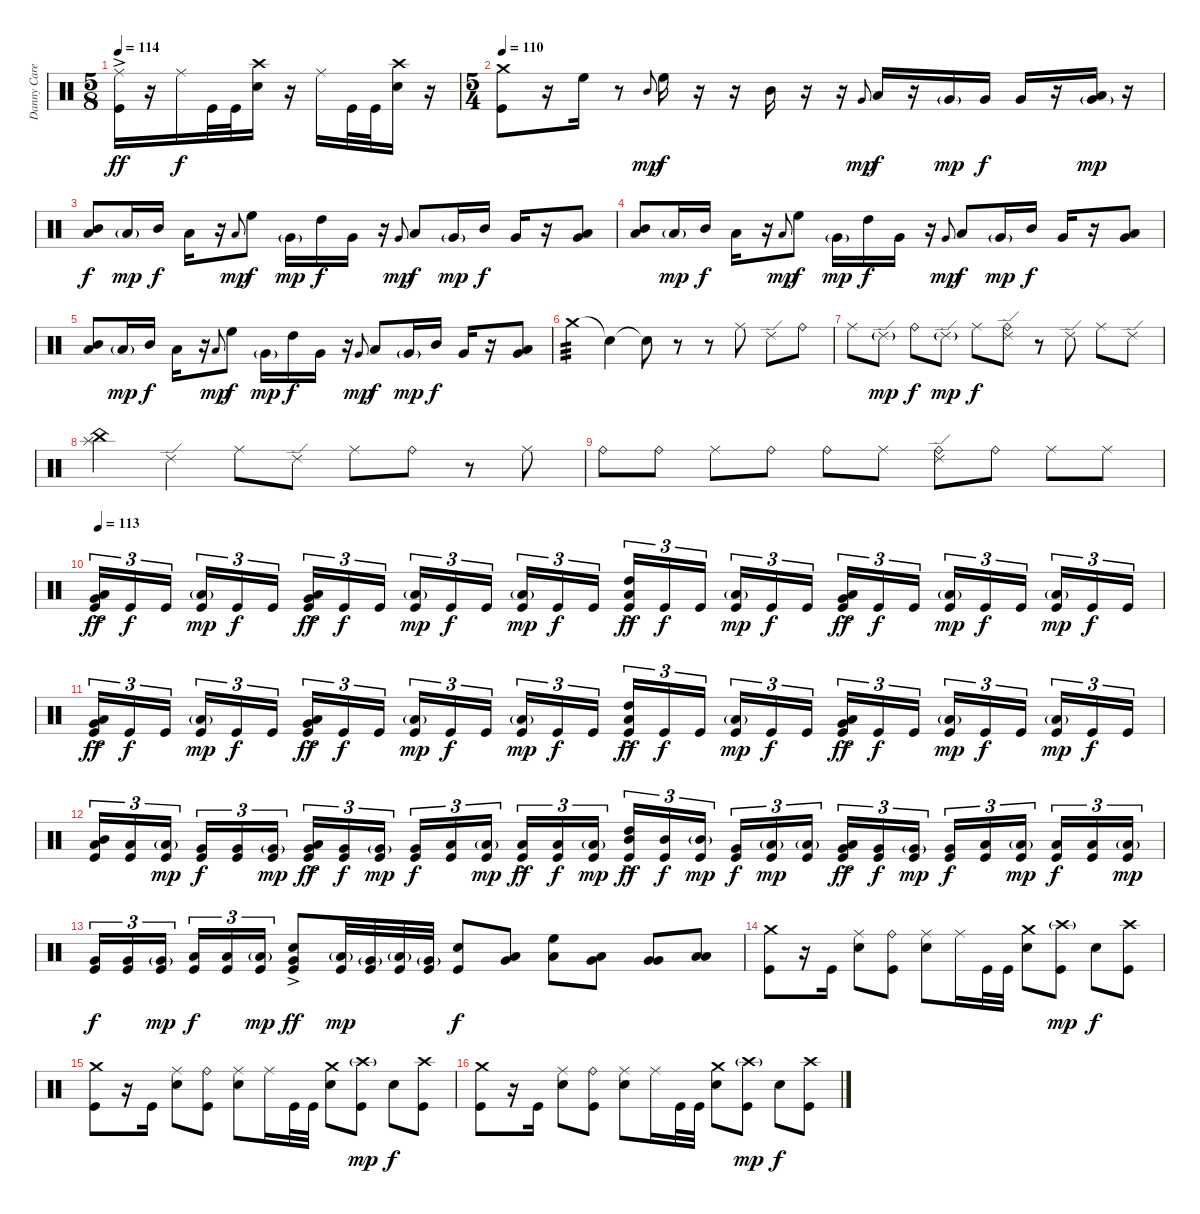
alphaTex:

\track ("Danny Carey (drum)" "Danny Care") {instrument percussion}
\staff {score}
\articulation defaults
\ts (5 8)
\tempo 114
\clef neutral
\ks c
("Ride (middle)"{ac} "Kick (hit)").16{dy ff} r.16 "Ride (middle)".16{dy f} "Kick (hit)".32 "Kick (hit)".32 ("Crash high (hit)" "Snare (hit) 2").16 r.16 "Ride (middle)".16 "Kick (hit)".32 "Kick (hit)".32 ("Crash high (hit)" "Snare (hit) 2").16 r.16 |
\ts (5 4)
\tempo 110
("Crash medium (hit)" "Kick (hit)").8 r.16 "High Floor Tom (hit)".16 r.8 "Mid Tom (hit)".8{gr onbeat dy mp} "High Floor Tom (hit)".16{dy f} r.16 r.16 "Mid Tom (hit)".16 r.16 r.16 "Very Low Tom (hit)".8{gr onbeat dy mp} "Low Tom (hit)".16{dy f} r.16 "Very Low Tom (hit)"{g}.16{dy mp} "Very Low Tom (hit)".16{dy f} "Very Low Tom (hit)".16 r.16 ("Very Low Tom (hit)"{g} "Low Floor Tom (hit)").16{dy mp} r.16 |
("Mid Tom (hit)" "Low Floor Tom (hit)").8{dy f} "Low Floor Tom (hit)"{g}.16{dy mp} "Mid Tom (hit)".16{dy f} "Low Floor Tom (hit)".16 r.16 "Low Tom (hit)".8{gr onbeat dy mp} "High Floor Tom (hit)".8{dy f} "Very Low Tom (hit)"{g}.16{dy mp} "High Tom (hit)".16{dy f} "Very Low Tom (hit)".16 r.16 "Very Low Tom (hit)".8{gr onbeat dy mp} "Low Tom (hit)".8{dy f} "Very Low Tom (hit)"{g}.16{dy mp} "Mid Tom (hit)".16{dy f} "Very Low Tom (hit)".16 r.16 ("Very Low Tom (hit)" "Low Floor Tom (hit)").8 |
("Mid Tom (hit)" "Low Floor Tom (hit)").8 "Low Floor Tom (hit)"{g}.16{dy mp} "Mid Tom (hit)".16{dy f} "Low Floor Tom (hit)".16 r.16 "Low Tom (hit)".8{gr onbeat dy mp} "High Floor Tom (hit)".8{dy f} "Very Low Tom (hit)"{g}.16{dy mp} "High Tom (hit)".16{dy f} "Very Low Tom (hit)".16 r.16 "Very Low Tom (hit)".8{gr onbeat dy mp} "Low Tom (hit)".8{dy f} "Very Low Tom (hit)"{g}.16{dy mp} "Mid Tom (hit)".16{dy f} "Very Low Tom (hit)".16 r.16 ("Very Low Tom (hit)" "Low Floor Tom (hit)").8 |
("Mid Tom (hit)" "Low Floor Tom (hit)").8 "Low Floor Tom (hit)"{g}.16{dy mp} "Mid Tom (hit)".16{dy f} "Low Floor Tom (hit)".16 r.16 "Low Tom (hit)".8{gr onbeat dy mp} "High Floor Tom (hit)".8{dy f} "Very Low Tom (hit)"{g}.16{dy mp} "High Tom (hit)".16{dy f} "Very Low Tom (hit)".16 r.16 "Very Low Tom (hit)".8{gr onbeat dy mp} "Low Tom (hit)".8{dy f} "Very Low Tom (hit)"{g}.16{dy mp} "Mid Tom (hit)".16{dy f} "Very Low Tom (hit)".16 r.16 ("Very Low Tom (hit)" "Low Floor Tom (hit)").8 |
"Crash medium (hit)".4{tp 3 volume 7} "Snare (hit)"{t}.4{volume 12} "Snare (hit)"{t}.8 r.8 r.8 "Ride (middle)".8 "Ride (edge) 2".8 "Ride (bell)".8 |
"Ride (middle)".8 "Ride (edge) 2"{g}.8{dy mp} "Ride (bell)".8{dy f} "Ride (edge) 2"{g}.8{dy mp} "Ride (middle)".8{dy f} ("Ride (edge) 2" "Ride (bell)").8 r.8 "Ride (edge) 2".8 "Ride (middle)".8 "Ride (edge) 2".8 |
("Splash (hit)" "China (hit)").4 "Ride (edge) 2".4 "Ride (middle)".8 "Ride (edge) 2".8 "Ride (middle)".8 "Ride (bell)".8 r.8 "Ride (middle)".8 |
"Ride (bell)".8 "Ride (bell)".8 "Ride (middle)".8 "Ride (bell)".8 "Ride (bell)".8 "Ride (middle)".8 ("Ride (bell)" "Ride (edge) 2").8 "Ride (bell)".8 "Ride (middle)".8 "Ride (middle)".8 |
\tempo 113
("Low Tom (hit)"{ac} "Very Low Tom (hit)"{ac} "Kick (hit)").16{tu (3 2) dy ff} "Kick (hit)".16{tu (3 2) dy f} "Kick (hit)".16{tu (3 2) beam splitsecondary} ("Low Floor Tom (hit)"{g} "Kick (hit)").16{tu (3 2) dy mp} "Kick (hit)".16{tu (3 2) dy f} "Kick (hit)".16{tu (3 2)} ("Very Low Tom (hit)"{ac} "Low Floor Tom (hit)"{ac} "Kick (hit)").16{tu (3 2) dy ff} "Kick (hit)".16{tu (3 2) dy f} "Kick (hit)".16{tu (3 2) beam splitsecondary} ("Low Floor Tom (hit)"{g} "Kick (hit)").16{tu (3 2) dy mp} "Kick (hit)".16{tu (3 2) dy f} "Kick (hit)".16{tu (3 2)} ("Low Floor Tom (hit)"{g} "Kick (hit)").16{tu (3 2) dy mp} "Kick (hit)".16{tu (3 2) dy f} "Kick (hit)".16{tu (3 2) beam splitsecondary} ("High Tom (hit)"{ac} "Low Tom (hit)"{ac} "Kick (hit)").16{tu (3 2) dy ff} "Kick (hit)".16{tu (3 2) dy f} "Kick (hit)".16{tu (3 2)} ("Low Floor Tom (hit)"{g} "Kick (hit)").16{tu (3 2) dy mp} "Kick (hit)".16{tu (3 2) dy f} "Kick (hit)".16{tu (3 2) beam splitsecondary} ("Very Low Tom (hit)"{ac} "Low Floor Tom (hit)"{ac} "Kick (hit)").16{tu (3 2) dy ff} "Kick (hit)".16{tu (3 2) dy f} "Kick (hit)".16{tu (3 2)} ("Low Floor Tom (hit)"{g} "Kick (hit)").16{tu (3 2) dy mp} "Kick (hit)".16{tu (3 2) dy f} "Kick (hit)".16{tu (3 2) beam splitsecondary} ("Low Floor Tom (hit)"{g} "Kick (hit)").16{tu (3 2) dy mp} "Kick (hit)".16{tu (3 2) dy f} "Kick (hit)".16{tu (3 2)} |
("Low Tom (hit)"{ac} "Very Low Tom (hit)"{ac} "Kick (hit)").16{tu (3 2) dy ff} "Kick (hit)".16{tu (3 2) dy f} "Kick (hit)".16{tu (3 2) beam splitsecondary} ("Low Floor Tom (hit)"{g} "Kick (hit)").16{tu (3 2) dy mp} "Kick (hit)".16{tu (3 2) dy f} "Kick (hit)".16{tu (3 2)} ("Very Low Tom (hit)"{ac} "Low Floor Tom (hit)"{ac} "Kick (hit)").16{tu (3 2) dy ff} "Kick (hit)".16{tu (3 2) dy f} "Kick (hit)".16{tu (3 2) beam splitsecondary} ("Low Floor Tom (hit)"{g} "Kick (hit)").16{tu (3 2) dy mp} "Kick (hit)".16{tu (3 2) dy f} "Kick (hit)".16{tu (3 2)} ("Low Floor Tom (hit)"{g} "Kick (hit)").16{tu (3 2) dy mp} "Kick (hit)".16{tu (3 2) dy f} "Kick (hit)".16{tu (3 2) beam splitsecondary} ("High Tom (hit)"{ac} "Low Tom (hit)"{ac} "Kick (hit)").16{tu (3 2) dy ff} "Kick (hit)".16{tu (3 2) dy f} "Kick (hit)".16{tu (3 2)} ("Low Floor Tom (hit)"{g} "Kick (hit)").16{tu (3 2) dy mp} "Kick (hit)".16{tu (3 2) dy f} "Kick (hit)".16{tu (3 2) beam splitsecondary} ("Very Low Tom (hit)"{ac} "Low Floor Tom (hit)"{ac} "Kick (hit)").16{tu (3 2) dy ff} "Kick (hit)".16{tu (3 2) dy f} "Kick (hit)".16{tu (3 2)} ("Low Floor Tom (hit)"{g} "Kick (hit)").16{tu (3 2) dy mp} "Kick (hit)".16{tu (3 2) dy f} "Kick (hit)".16{tu (3 2) beam splitsecondary} ("Low Floor Tom (hit)"{g} "Kick (hit)").16{tu (3 2) dy mp} "Kick (hit)".16{tu (3 2) dy f} "Kick (hit)".16{tu (3 2)} |
("Mid Tom (hit)" "Low Tom (hit)" "Kick (hit)").16{tu (3 2)} ("Low Tom (hit)" "Kick (hit)").16{tu (3 2)} ("Low Tom (hit)"{g} "Kick (hit)").16{tu (3 2) dy mp beam splitsecondary} ("Very Low Tom (hit)" "Kick (hit)").16{tu (3 2) dy f} ("Very Low Tom (hit)" "Kick (hit)").16{tu (3 2)} ("Very Low Tom (hit)"{g} "Kick (hit)").16{tu (3 2) dy mp} ("Low Tom (hit)"{ac} "Very Low Tom (hit)"{ac} "Kick (hit)").16{tu (3 2) dy ff} ("Very Low Tom (hit)" "Kick (hit)").16{tu (3 2) dy f} ("Very Low Tom (hit)"{g} "Kick (hit)").16{tu (3 2) dy mp beam splitsecondary} ("Very Low Tom (hit)" "Kick (hit)").16{tu (3 2) dy f} ("Low Floor Tom (hit)" "Kick (hit)").16{tu (3 2)} ("Low Floor Tom (hit)"{g} "Kick (hit)").16{tu (3 2) dy mp} ("Low Floor Tom (hit)"{ac} "Kick (hit)").16{tu (3 2) dy ff} ("Low Floor Tom (hit)" "Kick (hit)").16{tu (3 2) dy f} ("Low Floor Tom (hit)"{g} "Kick (hit)").16{tu (3 2) dy mp beam splitsecondary} ("High Tom (hit)"{ac} "Mid Tom (hit)" "Kick (hit)").16{tu (3 2) dy ff} ("Mid Tom (hit)" "Kick (hit)").16{tu (3 2) dy f} ("Mid Tom (hit)"{g} "Kick (hit)").16{tu (3 2) dy mp} ("Very Low Tom (hit)" "Kick (hit)").16{tu (3 2) dy f} ("Low Floor Tom (hit)"{g} "Kick (hit)").16{tu (3 2) dy mp} ("Low Floor Tom (hit)"{g} "Kick (hit)").16{tu (3 2) beam splitsecondary} ("Low Tom (hit)"{ac} "Very Low Tom (hit)"{ac} "Kick (hit)").16{tu (3 2) dy ff} ("Very Low Tom (hit)" "Kick (hit)").16{tu (3 2) dy f} ("Very Low Tom (hit)"{g} "Kick (hit)").16{tu (3 2) dy mp} ("Very Low Tom (hit)" "Kick (hit)").16{tu (3 2) dy f} ("Low Floor Tom (hit)" "Kick (hit)").16{tu (3 2)} ("Low Floor Tom (hit)"{g} "Kick (hit)").16{tu (3 2) dy mp beam splitsecondary} ("Low Floor Tom (hit)" "Kick (hit)").16{tu (3 2) dy f} ("Low Floor Tom (hit)" "Kick (hit)").16{tu (3 2)} ("Low Floor Tom (hit)"{g} "Kick (hit)").16{tu (3 2) dy mp} |
("Very Low Tom (hit)" "Kick (hit)").16{tu (3 2) dy f} ("Very Low Tom (hit)" "Kick (hit)").16{tu (3 2)} ("Very Low Tom (hit)"{g} "Kick (hit)").16{tu (3 2) dy mp beam splitsecondary} ("Low Floor Tom (hit)" "Kick (hit)").16{tu (3 2) dy f} ("Low Floor Tom (hit)" "Kick (hit)").16{tu (3 2)} ("Low Floor Tom (hit)"{g} "Kick (hit)").16{tu (3 2) dy mp} ("Snare (hit) 2"{ac} "Very Low Tom (hit)"{ac} "Kick (hit)").8{dy ff} ("Low Tom (hit)"{g} "Kick (hit)").32{dy mp} ("Very Low Tom (hit)"{g} "Kick (hit)").32 ("Low Tom (hit)"{g} "Kick (hit)").32 ("Very Low Tom (hit)"{g} "Kick (hit)").32 ("Snare (hit) 2" "Kick (hit)").8{dy f} ("Very Low Tom (hit)" "Low Floor Tom (hit)").8 ("High Floor Tom (hit)" "Low Tom (hit)").8 ("Low Tom (hit)" "Very Low Tom (hit)").8 ("Very Low Tom (hit)" "Very Low Tom (hit)").8 ("Low Floor Tom (hit)" "Low Floor Tom (hit)").8 |
("Crash medium (hit)" "Kick (hit)").8 r.16 "Kick (hit)".16 ("Ride (middle)" "Snare (hit) 2").8 ("Ride (bell)" "Kick (hit)").8 ("Ride (middle)" "Snare (hit) 2").8 "Ride (middle)".16 "Kick (hit)".32 "Kick (hit)".32 ("Crash medium (hit)" "Snare (hit) 2").8 ("Crash high (hit)"{g} "Kick (hit)").8{dy mp} "Snare (hit) 2".8{dy f} ("Crash high (hit)" "Kick (hit)").8 |
("Crash medium (hit)" "Kick (hit)").8 r.16 "Kick (hit)".16 ("Ride (middle)" "Snare (hit) 2").8 ("Ride (bell)" "Kick (hit)").8 ("Ride (middle)" "Snare (hit) 2").8 "Ride (middle)".16 "Kick (hit)".32 "Kick (hit)".32 ("Crash medium (hit)" "Snare (hit) 2").8 ("Crash high (hit)"{g} "Kick (hit)").8{dy mp} "Snare (hit) 2".8{dy f} ("Crash high (hit)" "Kick (hit)").8 |
("Crash medium (hit)" "Kick (hit)").8 r.16 "Kick (hit)".16 ("Ride (middle)" "Snare (hit) 2").8 ("Ride (bell)" "Kick (hit)").8 ("Ride (middle)" "Snare (hit) 2").8 "Ride (middle)".16 "Kick (hit)".32 "Kick (hit)".32 ("Crash medium (hit)" "Snare (hit) 2").8 ("Crash high (hit)"{g} "Kick (hit)").8{dy mp} "Snare (hit) 2".8{dy f} ("Crash high (hit)" "Kick (hit)").8
